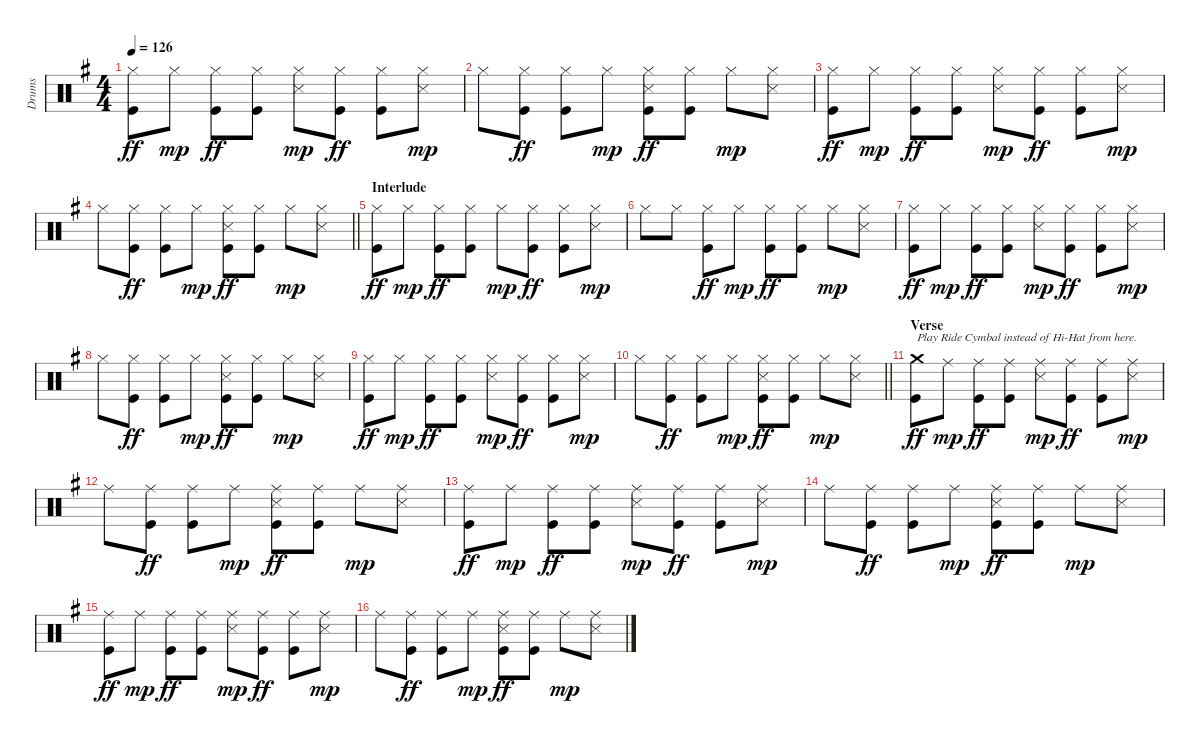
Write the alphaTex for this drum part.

\track ("Drums" "Drums") {instrument percussion}
\staff {score}
\articulation defaults
\ts (4 4)
\tempo 126
\clef neutral
\ks eminor
("Hi-Hat (closed)" "Kick (hit)").8{dy ff} "Hi-Hat (closed)".8{dy mp} ("Hi-Hat (closed)" "Kick (hit)").8{dy ff} ("Hi-Hat (closed)" "Kick (hit)").8 ("Hi-Hat (closed)" "Snare (side stick) 3").8{dy mp} ("Hi-Hat (closed)" "Kick (hit)").8{dy ff} ("Hi-Hat (closed)" "Kick (hit)").8 ("Hi-Hat (closed)" "Snare (side stick) 3").8{dy mp} |
"Hi-Hat (closed)".8 ("Hi-Hat (closed)" "Kick (hit)").8{dy ff} ("Hi-Hat (closed)" "Kick (hit)").8 "Hi-Hat (closed)".8{dy mp} ("Hi-Hat (closed)" "Snare (side stick) 3" "Kick (hit)").8{dy ff} ("Hi-Hat (closed)" "Kick (hit)").8 "Hi-Hat (closed)".8{dy mp} ("Hi-Hat (closed)" "Snare (side stick) 3").8 |
("Hi-Hat (closed)" "Kick (hit)").8{dy ff} "Hi-Hat (closed)".8{dy mp} ("Hi-Hat (closed)" "Kick (hit)").8{dy ff} ("Hi-Hat (closed)" "Kick (hit)").8 ("Hi-Hat (closed)" "Snare (side stick) 3").8{dy mp} ("Hi-Hat (closed)" "Kick (hit)").8{dy ff} ("Hi-Hat (closed)" "Kick (hit)").8 ("Hi-Hat (closed)" "Snare (side stick) 3").8{dy mp} |
\barLineRight lightlight "Hi-Hat (closed)".8
("Hi-Hat (closed)" "Kick (hit)").8{dy ff} ("Hi-Hat (closed)" "Kick (hit)").8 "Hi-Hat (closed)".8{dy mp} ("Hi-Hat (closed)" "Snare (side stick) 3" "Kick (hit)").8{dy ff} ("Hi-Hat (closed)" "Kick (hit)").8 "Hi-Hat (closed)".8{dy mp} ("Hi-Hat (closed)" "Snare (side stick) 3").8 |
\section ("" "Interlude")
("Hi-Hat (closed)" "Kick (hit)").8{dy ff} "Hi-Hat (closed)".8{dy mp} ("Hi-Hat (closed)" "Kick (hit)").8{dy ff} ("Hi-Hat (closed)" "Kick (hit)").8 "Hi-Hat (closed)".8{dy mp} ("Hi-Hat (closed)" "Kick (hit)").8{dy ff} ("Hi-Hat (closed)" "Kick (hit)").8 ("Hi-Hat (closed)" "Snare (side stick) 3").8{dy mp} |
"Hi-Hat (closed)".8 "Hi-Hat (closed)".8 ("Hi-Hat (closed)" "Kick (hit)").8{dy ff} "Hi-Hat (closed)".8{dy mp} ("Hi-Hat (closed)" "Kick (hit)").8{dy ff} ("Hi-Hat (closed)" "Kick (hit)").8 "Hi-Hat (closed)".8{dy mp} ("Hi-Hat (closed)" "Snare (side stick) 3").8 |
("Hi-Hat (closed)" "Kick (hit)").8{dy ff} "Hi-Hat (closed)".8{dy mp} ("Hi-Hat (closed)" "Kick (hit)").8{dy ff} ("Hi-Hat (closed)" "Kick (hit)").8 ("Hi-Hat (closed)" "Snare (side stick) 3").8{dy mp} ("Hi-Hat (closed)" "Kick (hit)").8{dy ff} ("Hi-Hat (closed)" "Kick (hit)").8 ("Hi-Hat (closed)" "Snare (side stick) 3").8{dy mp} |
"Hi-Hat (closed)".8 ("Hi-Hat (closed)" "Kick (hit)").8{dy ff} ("Hi-Hat (closed)" "Kick (hit)").8 "Hi-Hat (closed)".8{dy mp} ("Hi-Hat (closed)" "Snare (side stick) 3" "Kick (hit)").8{dy ff} ("Hi-Hat (closed)" "Kick (hit)").8 "Hi-Hat (closed)".8{dy mp} ("Hi-Hat (closed)" "Snare (side stick) 3").8 |
("Hi-Hat (closed)" "Kick (hit)").8{dy ff} "Hi-Hat (closed)".8{dy mp} ("Hi-Hat (closed)" "Kick (hit)").8{dy ff} ("Hi-Hat (closed)" "Kick (hit)").8 ("Hi-Hat (closed)" "Snare (side stick) 3").8{dy mp} ("Hi-Hat (closed)" "Kick (hit)").8{dy ff} ("Hi-Hat (closed)" "Kick (hit)").8 ("Hi-Hat (closed)" "Snare (side stick) 3").8{dy mp} |
\barLineRight lightlight "Hi-Hat (closed)".8
("Hi-Hat (closed)" "Kick (hit)").8{dy ff} ("Hi-Hat (closed)" "Kick (hit)").8 "Hi-Hat (closed)".8{dy mp} ("Hi-Hat (closed)" "Snare (side stick) 3" "Kick (hit)").8{dy ff} ("Hi-Hat (closed)" "Kick (hit)").8 "Hi-Hat (closed)".8{dy mp} ("Hi-Hat (closed)" "Snare (side stick) 3").8 |
\section ("" "Verse")
("Crash medium (hit)" "Kick (hit)").8{txt "Play Ride Cymbal instead of Hi-Hat from here." dy ff} "Ride (middle)".8{dy mp} ("Ride (middle)" "Kick (hit)").8{dy ff} ("Ride (middle)" "Kick (hit)").8 ("Ride (middle)" "Snare (side stick) 3").8{dy mp} ("Ride (middle)" "Kick (hit)").8{dy ff} ("Ride (middle)" "Kick (hit)").8 ("Ride (middle)" "Snare (side stick) 3").8{dy mp} |
"Ride (middle)".8 ("Ride (middle)" "Kick (hit)").8{dy ff} ("Ride (middle)" "Kick (hit)").8 "Ride (middle)".8{dy mp} ("Ride (middle)" "Snare (side stick) 3" "Kick (hit)").8{dy ff} ("Ride (middle)" "Kick (hit)").8 "Ride (middle)".8{dy mp} ("Ride (middle)" "Snare (side stick) 3").8 |
("Ride (middle)" "Kick (hit)").8{dy ff} "Ride (middle)".8{dy mp} ("Ride (middle)" "Kick (hit)").8{dy ff} ("Ride (middle)" "Kick (hit)").8 ("Ride (middle)" "Snare (side stick) 3").8{dy mp} ("Ride (middle)" "Kick (hit)").8{dy ff} ("Ride (middle)" "Kick (hit)").8 ("Ride (middle)" "Snare (side stick) 3").8{dy mp} |
"Ride (middle)".8 ("Ride (middle)" "Kick (hit)").8{dy ff} ("Ride (middle)" "Kick (hit)").8 "Ride (middle)".8{dy mp} ("Ride (middle)" "Snare (side stick) 3" "Kick (hit)").8{dy ff} ("Ride (middle)" "Kick (hit)").8 "Ride (middle)".8{dy mp} ("Ride (middle)" "Snare (side stick) 3").8 |
("Ride (middle)" "Kick (hit)").8{dy ff} "Ride (middle)".8{dy mp} ("Ride (middle)" "Kick (hit)").8{dy ff} ("Ride (middle)" "Kick (hit)").8 ("Ride (middle)" "Snare (side stick) 3").8{dy mp} ("Ride (middle)" "Kick (hit)").8{dy ff} ("Ride (middle)" "Kick (hit)").8 ("Ride (middle)" "Snare (side stick) 3").8{dy mp} |
"Ride (middle)".8 ("Ride (middle)" "Kick (hit)").8{dy ff} ("Ride (middle)" "Kick (hit)").8 "Ride (middle)".8{dy mp} ("Ride (middle)" "Snare (side stick) 3" "Kick (hit)").8{dy ff} ("Ride (middle)" "Kick (hit)").8 "Ride (middle)".8{dy mp} ("Ride (middle)" "Snare (side stick) 3").8
